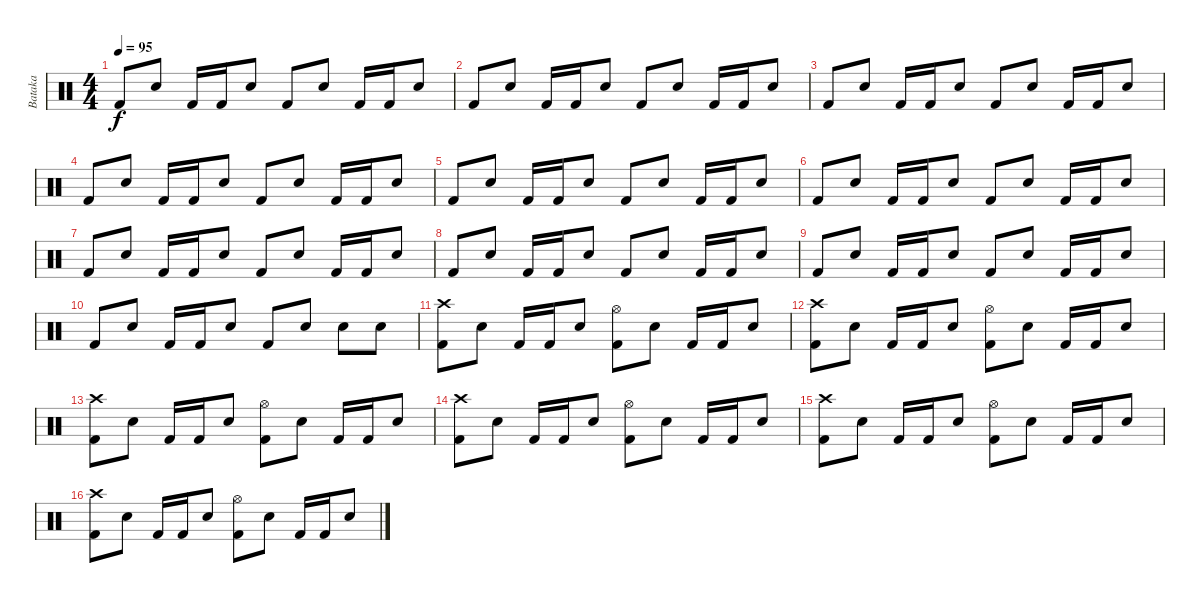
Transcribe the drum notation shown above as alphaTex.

\track ("Bataka" "Bataka") {instrument percussion}
\staff {score}
\articulation defaults
\ts (4 4)
\tempo 95
\clef neutral
\ks c "Kick (hit) 2".8{dy f} "Electric Snare (hit)".8 "Kick (hit) 2".16 "Kick (hit) 2".16 "Electric Snare (hit)".8 "Kick (hit) 2".8 "Electric Snare (hit)".8 "Kick (hit) 2".16 "Kick (hit) 2".16 "Electric Snare (hit)".8
|
"Kick (hit) 2".8 "Electric Snare (hit)".8 "Kick (hit) 2".16 "Kick (hit) 2".16 "Electric Snare (hit)".8 "Kick (hit) 2".8 "Electric Snare (hit)".8 "Kick (hit) 2".16 "Kick (hit) 2".16 "Electric Snare (hit)".8 |
"Kick (hit) 2".8 "Electric Snare (hit)".8 "Kick (hit) 2".16 "Kick (hit) 2".16 "Electric Snare (hit)".8 "Kick (hit) 2".8 "Electric Snare (hit)".8 "Kick (hit) 2".16 "Kick (hit) 2".16 "Electric Snare (hit)".8 |
"Kick (hit) 2".8 "Electric Snare (hit)".8 "Kick (hit) 2".16 "Kick (hit) 2".16 "Electric Snare (hit)".8 "Kick (hit) 2".8 "Electric Snare (hit)".8 "Kick (hit) 2".16 "Kick (hit) 2".16 "Electric Snare (hit)".8 |
"Kick (hit) 2".8 "Electric Snare (hit)".8 "Kick (hit) 2".16 "Kick (hit) 2".16 "Electric Snare (hit)".8 "Kick (hit) 2".8 "Electric Snare (hit)".8 "Kick (hit) 2".16 "Kick (hit) 2".16 "Electric Snare (hit)".8 |
"Kick (hit) 2".8 "Electric Snare (hit)".8 "Kick (hit) 2".16 "Kick (hit) 2".16 "Electric Snare (hit)".8 "Kick (hit) 2".8 "Electric Snare (hit)".8 "Kick (hit) 2".16 "Kick (hit) 2".16 "Electric Snare (hit)".8 |
"Kick (hit) 2".8 "Electric Snare (hit)".8 "Kick (hit) 2".16 "Kick (hit) 2".16 "Electric Snare (hit)".8 "Kick (hit) 2".8 "Electric Snare (hit)".8 "Kick (hit) 2".16 "Kick (hit) 2".16 "Electric Snare (hit)".8 |
"Kick (hit) 2".8 "Electric Snare (hit)".8 "Kick (hit) 2".16 "Kick (hit) 2".16 "Electric Snare (hit)".8 "Kick (hit) 2".8 "Electric Snare (hit)".8 "Kick (hit) 2".16 "Kick (hit) 2".16 "Electric Snare (hit)".8 |
"Kick (hit) 2".8 "Electric Snare (hit)".8 "Kick (hit) 2".16 "Kick (hit) 2".16 "Electric Snare (hit)".8 "Kick (hit) 2".8 "Electric Snare (hit)".8 "Kick (hit) 2".16 "Kick (hit) 2".16 "Electric Snare (hit)".8 |
"Kick (hit) 2".8 "Electric Snare (hit)".8 "Kick (hit) 2".16 "Kick (hit) 2".16 "Electric Snare (hit)".8 "Kick (hit) 2".8 "Electric Snare (hit)".8 "Electric Snare (hit)".8 "Electric Snare (hit)".8 |
("Crash high (hit)" "Kick (hit) 2").8 "Electric Snare (hit)".8 "Kick (hit) 2".16 "Kick (hit) 2".16 "Electric Snare (hit)".8 ("Hi-Hat (open)" "Kick (hit) 2").8 "Electric Snare (hit)".8 "Kick (hit) 2".16 "Kick (hit) 2".16 "Electric Snare (hit)".8 |
("Crash high (hit)" "Kick (hit) 2").8 "Electric Snare (hit)".8 "Kick (hit) 2".16 "Kick (hit) 2".16 "Electric Snare (hit)".8 ("Hi-Hat (open)" "Kick (hit) 2").8 "Electric Snare (hit)".8 "Kick (hit) 2".16 "Kick (hit) 2".16 "Electric Snare (hit)".8 |
("Crash high (hit)" "Kick (hit) 2").8 "Electric Snare (hit)".8 "Kick (hit) 2".16 "Kick (hit) 2".16 "Electric Snare (hit)".8 ("Hi-Hat (open)" "Kick (hit) 2").8 "Electric Snare (hit)".8 "Kick (hit) 2".16 "Kick (hit) 2".16 "Electric Snare (hit)".8 |
("Crash high (hit)" "Kick (hit) 2").8 "Electric Snare (hit)".8 "Kick (hit) 2".16 "Kick (hit) 2".16 "Electric Snare (hit)".8 ("Hi-Hat (open)" "Kick (hit) 2").8 "Electric Snare (hit)".8 "Kick (hit) 2".16 "Kick (hit) 2".16 "Electric Snare (hit)".8 |
("Crash high (hit)" "Kick (hit) 2").8 "Electric Snare (hit)".8 "Kick (hit) 2".16 "Kick (hit) 2".16 "Electric Snare (hit)".8 ("Hi-Hat (open)" "Kick (hit) 2").8 "Electric Snare (hit)".8 "Kick (hit) 2".16 "Kick (hit) 2".16 "Electric Snare (hit)".8 |
("Crash high (hit)" "Kick (hit) 2").8 "Electric Snare (hit)".8 "Kick (hit) 2".16 "Kick (hit) 2".16 "Electric Snare (hit)".8 ("Hi-Hat (open)" "Kick (hit) 2").8 "Electric Snare (hit)".8 "Kick (hit) 2".16 "Kick (hit) 2".16 "Electric Snare (hit)".8
